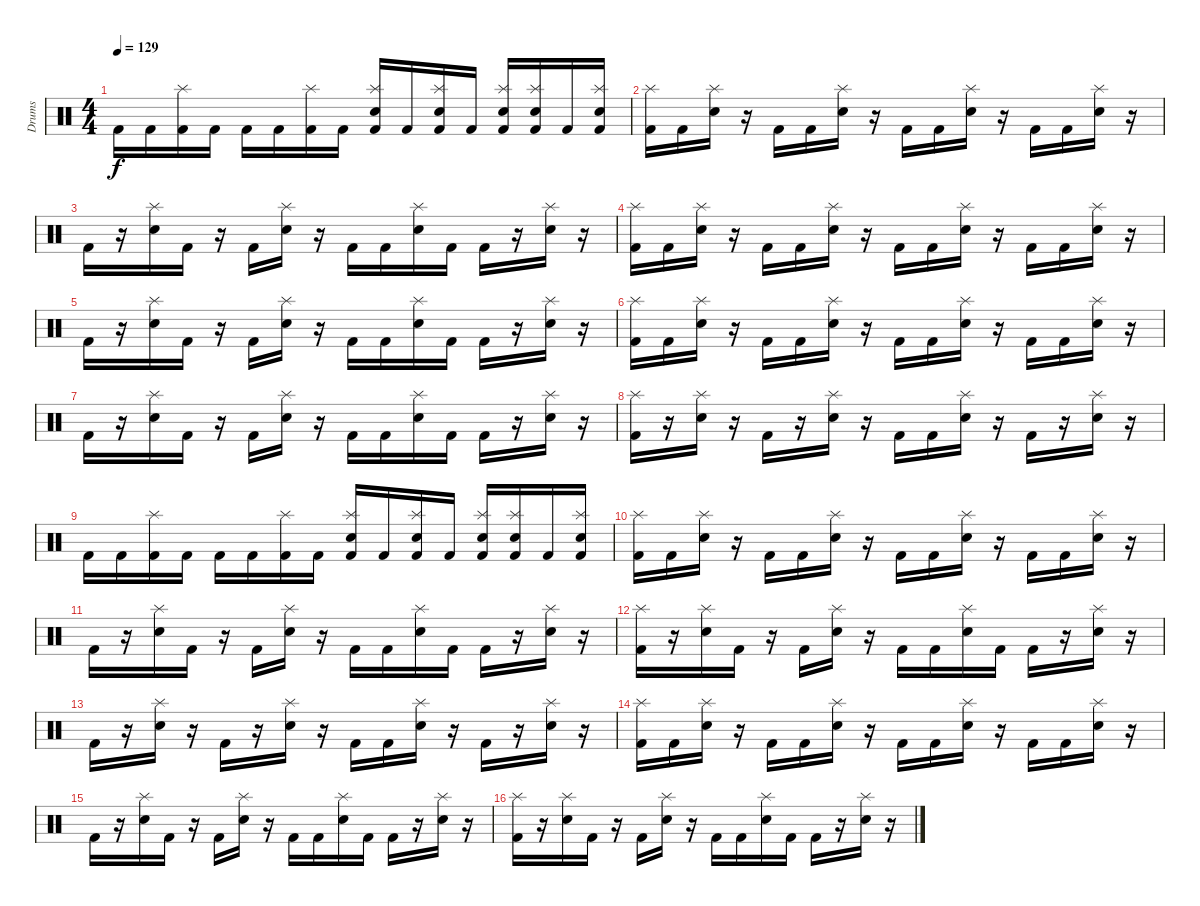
\track ("Drums" "Drums") {instrument percussion}
\staff {score}
\articulation defaults
\ts (4 4)
\tempo 129
\clef neutral
\ks c "Kick (hit) 2".16{dy f} "Kick (hit) 2".16
("Splash (hit)" "Kick (hit) 2").16 "Kick (hit) 2".16 "Kick (hit) 2".16 "Kick (hit) 2".16 ("Splash (hit)" "Kick (hit) 2").16 "Kick (hit) 2".16 ("Snare (hit) 2" "Splash (hit)" "Kick (hit) 2").16 "Kick (hit) 2".16 ("Snare (hit) 2" "Splash (hit)" "Kick (hit) 2").16 "Kick (hit) 2".16 ("Snare (hit) 2" "Splash (hit)" "Kick (hit) 2").16 ("Snare (hit) 2" "Splash (hit)" "Kick (hit) 2").16 "Kick (hit) 2".16 ("Snare (hit) 2" "Splash (hit)" "Kick (hit) 2").16 |
("Splash (hit)" "Kick (hit) 2").16 "Kick (hit) 2".16 ("Snare (hit) 2" "Splash (hit)").16 r.16 "Kick (hit) 2".16 "Kick (hit) 2".16 ("Snare (hit) 2" "Splash (hit)").16 r.16 "Kick (hit) 2".16 "Kick (hit) 2".16 ("Snare (hit) 2" "Splash (hit)").16 r.16 "Kick (hit) 2".16 "Kick (hit) 2".16 ("Snare (hit) 2" "Splash (hit)").16 r.16 |
"Kick (hit) 2".16 r.16 ("Snare (hit) 2" "Splash (hit)").16 "Kick (hit) 2".16 r.16 "Kick (hit) 2".16 ("Snare (hit) 2" "Splash (hit)").16 r.16 "Kick (hit) 2".16 "Kick (hit) 2".16 ("Snare (hit) 2" "Splash (hit)").16 "Kick (hit) 2".16 "Kick (hit) 2".16 r.16 ("Snare (hit) 2" "Splash (hit)").16 r.16 |
("Splash (hit)" "Kick (hit) 2").16 "Kick (hit) 2".16 ("Snare (hit) 2" "Splash (hit)").16 r.16 "Kick (hit) 2".16 "Kick (hit) 2".16 ("Snare (hit) 2" "Splash (hit)").16 r.16 "Kick (hit) 2".16 "Kick (hit) 2".16 ("Snare (hit) 2" "Splash (hit)").16 r.16 "Kick (hit) 2".16 "Kick (hit) 2".16 ("Snare (hit) 2" "Splash (hit)").16 r.16 |
"Kick (hit) 2".16 r.16 ("Snare (hit) 2" "Splash (hit)").16 "Kick (hit) 2".16 r.16 "Kick (hit) 2".16 ("Snare (hit) 2" "Splash (hit)").16 r.16 "Kick (hit) 2".16 "Kick (hit) 2".16 ("Snare (hit) 2" "Splash (hit)").16 "Kick (hit) 2".16 "Kick (hit) 2".16 r.16 ("Snare (hit) 2" "Splash (hit)").16 r.16 |
("Splash (hit)" "Kick (hit) 2").16 "Kick (hit) 2".16 ("Snare (hit) 2" "Splash (hit)").16 r.16 "Kick (hit) 2".16 "Kick (hit) 2".16 ("Snare (hit) 2" "Splash (hit)").16 r.16 "Kick (hit) 2".16 "Kick (hit) 2".16 ("Snare (hit) 2" "Splash (hit)").16 r.16 "Kick (hit) 2".16 "Kick (hit) 2".16 ("Snare (hit) 2" "Splash (hit)").16 r.16 |
"Kick (hit) 2".16 r.16 ("Snare (hit) 2" "Splash (hit)").16 "Kick (hit) 2".16 r.16 "Kick (hit) 2".16 ("Snare (hit) 2" "Splash (hit)").16 r.16 "Kick (hit) 2".16 "Kick (hit) 2".16 ("Snare (hit) 2" "Splash (hit)").16 "Kick (hit) 2".16 "Kick (hit) 2".16 r.16 ("Snare (hit) 2" "Splash (hit)").16 r.16 |
("Splash (hit)" "Kick (hit) 2").16 r.16 ("Snare (hit) 2" "Splash (hit)").16 r.16 "Kick (hit) 2".16 r.16 ("Snare (hit) 2" "Splash (hit)").16 r.16 "Kick (hit) 2".16 "Kick (hit) 2".16 ("Snare (hit) 2" "Splash (hit)").16 r.16 "Kick (hit) 2".16 r.16 ("Snare (hit) 2" "Splash (hit)").16 r.16 |
"Kick (hit) 2".16 "Kick (hit) 2".16 ("Splash (hit)" "Kick (hit) 2").16 "Kick (hit) 2".16 "Kick (hit) 2".16 "Kick (hit) 2".16 ("Splash (hit)" "Kick (hit) 2").16 "Kick (hit) 2".16 ("Snare (hit) 2" "Splash (hit)" "Kick (hit) 2").16 "Kick (hit) 2".16 ("Snare (hit) 2" "Splash (hit)" "Kick (hit) 2").16 "Kick (hit) 2".16 ("Snare (hit) 2" "Splash (hit)" "Kick (hit) 2").16 ("Snare (hit) 2" "Splash (hit)" "Kick (hit) 2").16 "Kick (hit) 2".16 ("Snare (hit) 2" "Splash (hit)" "Kick (hit) 2").16 |
("Splash (hit)" "Kick (hit) 2").16 "Kick (hit) 2".16 ("Snare (hit) 2" "Splash (hit)").16 r.16 "Kick (hit) 2".16 "Kick (hit) 2".16 ("Snare (hit) 2" "Splash (hit)").16 r.16 "Kick (hit) 2".16 "Kick (hit) 2".16 ("Snare (hit) 2" "Splash (hit)").16 r.16 "Kick (hit) 2".16 "Kick (hit) 2".16 ("Snare (hit) 2" "Splash (hit)").16 r.16 |
"Kick (hit) 2".16 r.16 ("Snare (hit) 2" "Splash (hit)").16 "Kick (hit) 2".16 r.16 "Kick (hit) 2".16 ("Snare (hit) 2" "Splash (hit)").16 r.16 "Kick (hit) 2".16 "Kick (hit) 2".16 ("Snare (hit) 2" "Splash (hit)").16 "Kick (hit) 2".16 "Kick (hit) 2".16 r.16 ("Snare (hit) 2" "Splash (hit)").16 r.16 |
("Splash (hit)" "Kick (hit) 2").16 r.16 ("Snare (hit) 2" "Splash (hit)").16 "Kick (hit) 2".16 r.16 "Kick (hit) 2".16 ("Snare (hit) 2" "Splash (hit)").16 r.16 "Kick (hit) 2".16 "Kick (hit) 2".16 ("Snare (hit) 2" "Splash (hit)").16 "Kick (hit) 2".16 "Kick (hit) 2".16 r.16 ("Snare (hit) 2" "Splash (hit)").16 r.16 |
"Kick (hit) 2".16 r.16 ("Snare (hit) 2" "Splash (hit)").16 r.16 "Kick (hit) 2".16 r.16 ("Snare (hit) 2" "Splash (hit)").16 r.16 "Kick (hit) 2".16 "Kick (hit) 2".16 ("Snare (hit) 2" "Splash (hit)").16 r.16 "Kick (hit) 2".16 r.16 ("Snare (hit) 2" "Splash (hit)").16 r.16 |
("Splash (hit)" "Kick (hit) 2").16 "Kick (hit) 2".16 ("Snare (hit) 2" "Splash (hit)").16 r.16 "Kick (hit) 2".16 "Kick (hit) 2".16 ("Snare (hit) 2" "Splash (hit)").16 r.16 "Kick (hit) 2".16 "Kick (hit) 2".16 ("Snare (hit) 2" "Splash (hit)").16 r.16 "Kick (hit) 2".16 "Kick (hit) 2".16 ("Snare (hit) 2" "Splash (hit)").16 r.16 |
"Kick (hit) 2".16 r.16 ("Snare (hit) 2" "Splash (hit)").16 "Kick (hit) 2".16 r.16 "Kick (hit) 2".16 ("Snare (hit) 2" "Splash (hit)").16 r.16 "Kick (hit) 2".16 "Kick (hit) 2".16 ("Snare (hit) 2" "Splash (hit)").16 "Kick (hit) 2".16 "Kick (hit) 2".16 r.16 ("Snare (hit) 2" "Splash (hit)").16 r.16 |
("Splash (hit)" "Kick (hit) 2").16 r.16 ("Snare (hit) 2" "Splash (hit)").16 "Kick (hit) 2".16 r.16 "Kick (hit) 2".16 ("Snare (hit) 2" "Splash (hit)").16 r.16 "Kick (hit) 2".16 "Kick (hit) 2".16 ("Snare (hit) 2" "Splash (hit)").16 "Kick (hit) 2".16 "Kick (hit) 2".16 r.16 ("Snare (hit) 2" "Splash (hit)").16 r.16
